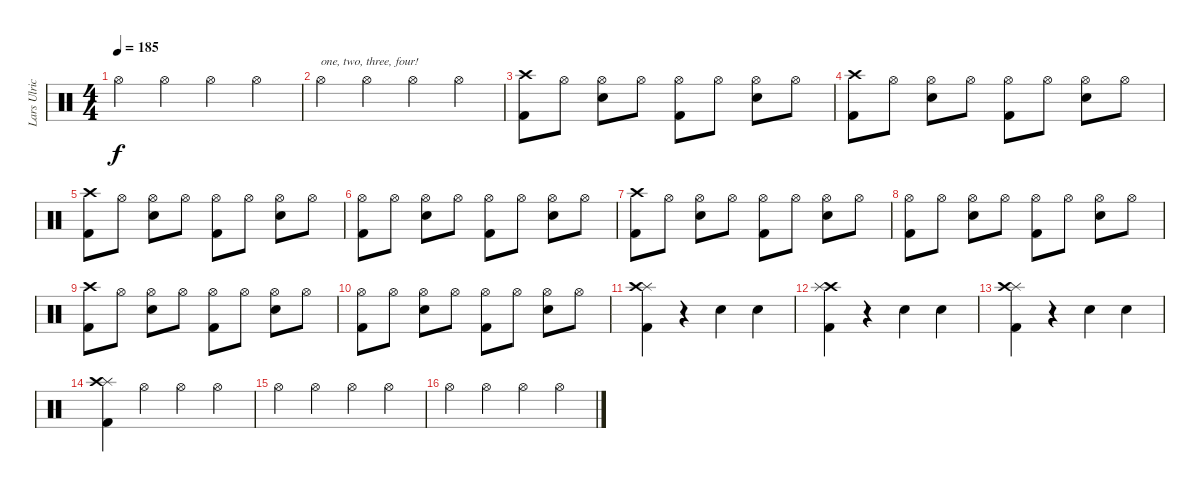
\track ("Lars Ulrich" "Lars Ulric") {instrument percussion}
\staff {score}
\articulation defaults
\ts (4 4)
\tempo 185
\clef neutral
\ks c "Hi-Hat (open)".4{dy f} "Hi-Hat (open)".4 "Hi-Hat (open)".4 "Hi-Hat (open)".4
|
"Hi-Hat (open)".4{txt "one, two, three, four!"} "Hi-Hat (open)".4 "Hi-Hat (open)".4 "Hi-Hat (open)".4 |
("Crash high (hit)" "Kick (hit) 2").8 "Hi-Hat (open)".8 ("Snare (hit) 2" "Hi-Hat (open)").8 "Hi-Hat (open)".8 ("Kick (hit) 2" "Hi-Hat (open)").8 "Hi-Hat (open)".8 ("Snare (hit) 2" "Hi-Hat (open)").8 "Hi-Hat (open)".8 |
("Crash high (hit)" "Kick (hit) 2").8 "Hi-Hat (open)".8 ("Snare (hit) 2" "Hi-Hat (open)").8 "Hi-Hat (open)".8 ("Kick (hit) 2" "Hi-Hat (open)").8 "Hi-Hat (open)".8 ("Snare (hit) 2" "Hi-Hat (open)").8 "Hi-Hat (open)".8 |
("Crash high (hit)" "Kick (hit) 2").8 "Hi-Hat (open)".8 ("Snare (hit) 2" "Hi-Hat (open)").8 "Hi-Hat (open)".8 ("Kick (hit) 2" "Hi-Hat (open)").8 "Hi-Hat (open)".8 ("Snare (hit) 2" "Hi-Hat (open)").8 "Hi-Hat (open)".8 |
("Hi-Hat (open)" "Kick (hit) 2").8 "Hi-Hat (open)".8 ("Snare (hit) 2" "Hi-Hat (open)").8 "Hi-Hat (open)".8 ("Kick (hit) 2" "Hi-Hat (open)").8 "Hi-Hat (open)".8 ("Snare (hit) 2" "Hi-Hat (open)").8 "Hi-Hat (open)".8 |
("Crash high (hit)" "Kick (hit) 2").8 "Hi-Hat (open)".8 ("Snare (hit) 2" "Hi-Hat (open)").8 "Hi-Hat (open)".8 ("Kick (hit) 2" "Hi-Hat (open)").8 "Hi-Hat (open)".8 ("Snare (hit) 2" "Hi-Hat (open)").8 "Hi-Hat (open)".8 |
("Hi-Hat (open)" "Kick (hit) 2").8 "Hi-Hat (open)".8 ("Snare (hit) 2" "Hi-Hat (open)").8 "Hi-Hat (open)".8 ("Kick (hit) 2" "Hi-Hat (open)").8 "Hi-Hat (open)".8 ("Snare (hit) 2" "Hi-Hat (open)").8 "Hi-Hat (open)".8 |
("Crash high (hit)" "Kick (hit) 2").8 "Hi-Hat (open)".8 ("Snare (hit) 2" "Hi-Hat (open)").8 "Hi-Hat (open)".8 ("Kick (hit) 2" "Hi-Hat (open)").8 "Hi-Hat (open)".8 ("Snare (hit) 2" "Hi-Hat (open)").8 "Hi-Hat (open)".8 |
("Hi-Hat (open)" "Kick (hit) 2").8 "Hi-Hat (open)".8 ("Snare (hit) 2" "Hi-Hat (open)").8 "Hi-Hat (open)".8 ("Kick (hit) 2" "Hi-Hat (open)").8 "Hi-Hat (open)".8 ("Snare (hit) 2" "Hi-Hat (open)").8 "Hi-Hat (open)".8 |
("Splash (hit)" "Crash high (hit)" "Kick (hit) 2").4 r.4 "Snare (hit) 2".4 "Snare (hit) 2".4 |
("Kick (hit) 2" "Crash high (hit)" "Splash (hit)").4 r.4 "Snare (hit) 2".4 "Snare (hit) 2".4 |
("Kick (hit) 2" "Splash (hit)" "Crash high (hit)").4 r.4 "Snare (hit) 2".4 "Snare (hit) 2".4 |
("Splash (hit)" "Crash high (hit)" "Kick (hit) 2").4 "Hi-Hat (open)".4 "Hi-Hat (open)".4 "Hi-Hat (open)".4 |
"Hi-Hat (open)".4 "Hi-Hat (open)".4 "Hi-Hat (open)".4 "Hi-Hat (open)".4 |
"Hi-Hat (open)".4 "Hi-Hat (open)".4 "Hi-Hat (open)".4 "Hi-Hat (open)".4
